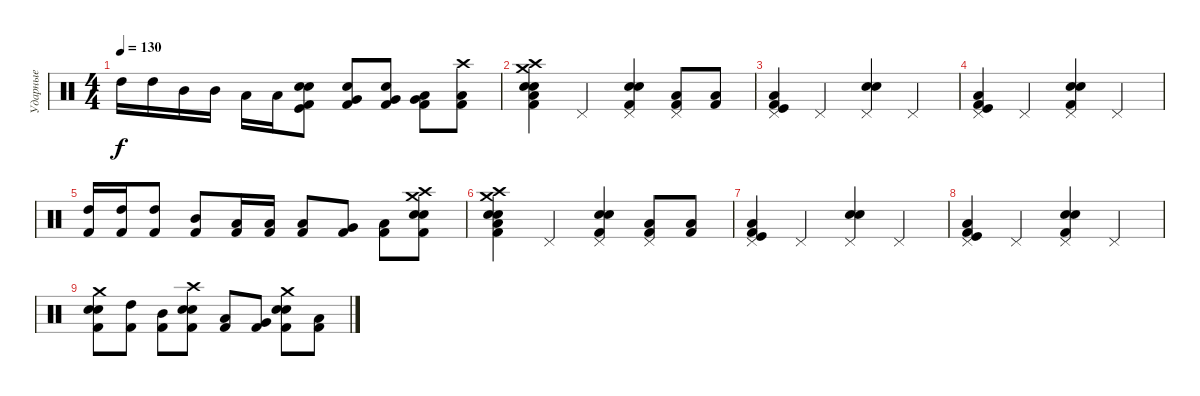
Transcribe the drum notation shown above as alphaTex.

\track ("Ударные" "Ударные") {instrument percussion}
\staff {score}
\articulation defaults
\ts (4 4)
\tempo 130
\clef neutral
\ks c "High Tom (hit)".16{dy f} "High Tom (hit)".16 "Mid Tom (hit)".16 "Mid Tom (hit)".16 "Low Tom (hit)".16 "Low Tom (hit)".16
("Electric Snare (hit)" "Kick (hit) 2" "Kick (hit)" "Snare (hit) 2").8 ("Electric Snare (hit)" "Very Low Tom (hit)" "Kick (hit) 2").8 ("Electric Snare (hit)" "Very Low Tom (hit)" "Kick (hit) 2").8 ("Kick (hit) 2" "Low Floor Tom (hit)" "Very Low Tom (hit)").8 ("Crash high (hit)" "Kick (hit) 2" "Low Floor Tom (hit)").8 |
("Kick (hit) 2" "Electric Snare (hit)" "Snare (hit) 2" "Crash high (hit)" "Crash medium (hit)" "Low Floor Tom (hit)").4 "Pedal Hi-Hat (hit)".4 ("Pedal Hi-Hat (hit)" "Kick (hit) 2" "Snare (hit) 2" "Electric Snare (hit)").4 ("Kick (hit) 2" "Pedal Hi-Hat (hit)" "Low Floor Tom (hit)").8 ("Low Floor Tom (hit)" "Kick (hit) 2").8 |
("Kick (hit) 2" "Kick (hit)" "Pedal Hi-Hat (hit)" "Low Floor Tom (hit)").4 "Pedal Hi-Hat (hit)".4 ("Pedal Hi-Hat (hit)" "Snare (hit) 2" "Electric Snare (hit)").4 "Pedal Hi-Hat (hit)".4 |
("Kick (hit) 2" "Kick (hit)" "Pedal Hi-Hat (hit)" "Low Floor Tom (hit)").4 "Pedal Hi-Hat (hit)".4 ("Kick (hit) 2" "Pedal Hi-Hat (hit)" "Snare (hit) 2" "Electric Snare (hit)").4 "Pedal Hi-Hat (hit)".4 |
("High Tom (hit)" "Kick (hit) 2").16 ("High Tom (hit)" "Kick (hit) 2").16 ("High Tom (hit)" "Kick (hit) 2").8 ("Mid Tom (hit)" "Kick (hit) 2").8 ("Low Tom (hit)" "Kick (hit) 2").16 ("Low Tom (hit)" "Kick (hit) 2").16 ("Low Tom (hit)" "Kick (hit) 2").8 ("Very Low Tom (hit)" "Kick (hit) 2").8 ("Low Floor Tom (hit)" "Kick (hit) 2").8 ("Crash high (hit)" "Electric Snare (hit)" "Snare (hit) 2" "Kick (hit) 2" "Crash medium (hit)").8 |
("Kick (hit) 2" "Electric Snare (hit)" "Snare (hit) 2" "Crash high (hit)" "Crash medium (hit)" "Low Floor Tom (hit)").4 "Pedal Hi-Hat (hit)".4 ("Pedal Hi-Hat (hit)" "Kick (hit) 2" "Snare (hit) 2" "Electric Snare (hit)").4 ("Kick (hit) 2" "Pedal Hi-Hat (hit)" "Low Floor Tom (hit)").8 ("Low Floor Tom (hit)" "Kick (hit) 2").8 |
("Kick (hit) 2" "Kick (hit)" "Pedal Hi-Hat (hit)" "Low Floor Tom (hit)").4 "Pedal Hi-Hat (hit)".4 ("Pedal Hi-Hat (hit)" "Snare (hit) 2" "Electric Snare (hit)").4 "Pedal Hi-Hat (hit)".4 |
("Kick (hit) 2" "Kick (hit)" "Pedal Hi-Hat (hit)" "Low Floor Tom (hit)").4 "Pedal Hi-Hat (hit)".4 ("Kick (hit) 2" "Pedal Hi-Hat (hit)" "Snare (hit) 2" "Electric Snare (hit)").4 "Pedal Hi-Hat (hit)".4 |
("Crash medium (hit)" "Electric Snare (hit)" "Snare (hit) 2" "Kick (hit) 2").8 ("Kick (hit) 2" "High Tom (hit)").8 ("Mid Tom (hit)" "Kick (hit) 2").8 ("Crash high (hit)" "Electric Snare (hit)" "Snare (hit) 2" "Kick (hit) 2").8 ("Kick (hit) 2" "Low Tom (hit)").8 ("Kick (hit) 2" "Very Low Tom (hit)").8 ("Crash medium (hit)" "Electric Snare (hit)" "Snare (hit) 2" "Kick (hit) 2").8 ("Kick (hit) 2" "Low Floor Tom (hit)").8
